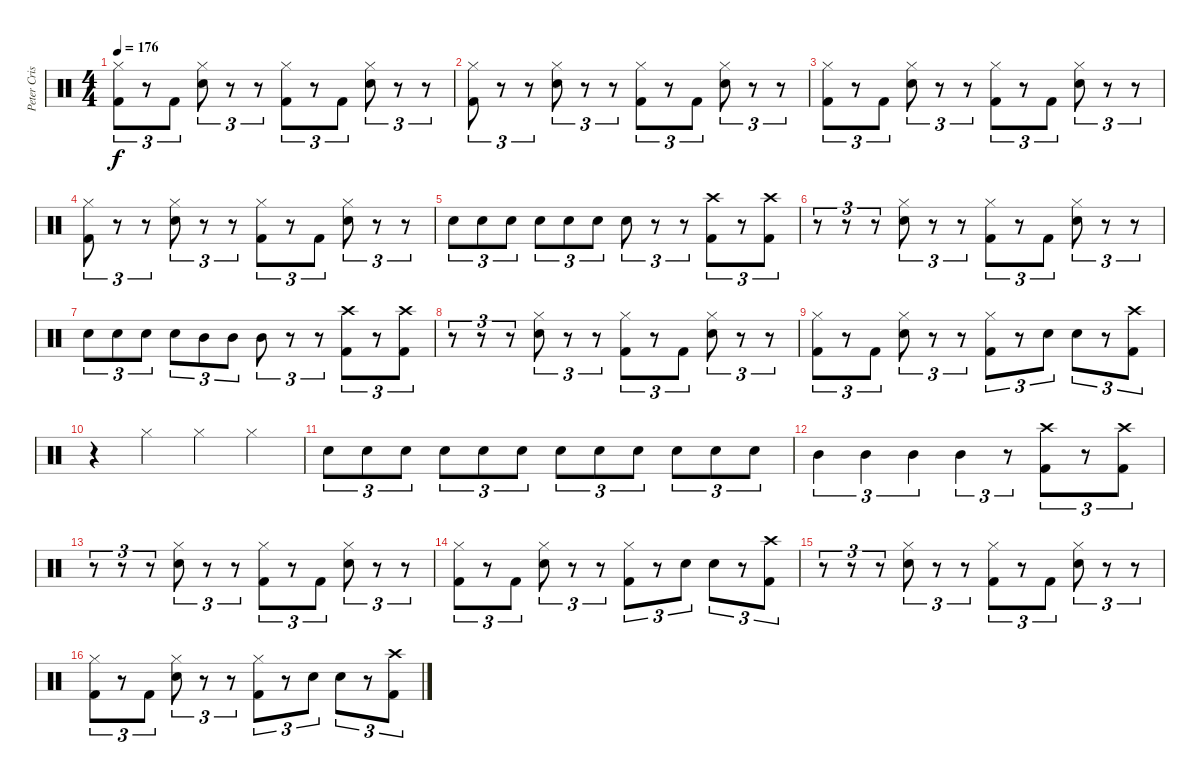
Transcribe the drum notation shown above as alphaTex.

\track ("Peter Criss" "Peter Cris") {instrument percussion}
\staff {score}
\articulation defaults
\ts (4 4)
\tempo 176
\clef neutral
\ks c
("Hi-Hat (closed)" "Kick (hit) 2").8{tu (3 2) dy f} r.8{tu (3 2)} "Kick (hit) 2".8{tu (3 2)} ("Hi-Hat (closed)" "Electric Snare (hit)").8{tu (3 2)} r.8{tu (3 2)} r.8{tu (3 2)} ("Hi-Hat (closed)" "Kick (hit) 2").8{tu (3 2)} r.8{tu (3 2)} "Kick (hit) 2".8{tu (3 2)} ("Hi-Hat (closed)" "Electric Snare (hit)").8{tu (3 2)} r.8{tu (3 2)} r.8{tu (3 2)} |
("Hi-Hat (closed)" "Kick (hit) 2").8{tu (3 2)} r.8{tu (3 2)} r.8{tu (3 2)} ("Hi-Hat (closed)" "Electric Snare (hit)").8{tu (3 2)} r.8{tu (3 2)} r.8{tu (3 2)} ("Hi-Hat (closed)" "Kick (hit) 2").8{tu (3 2)} r.8{tu (3 2)} "Kick (hit) 2".8{tu (3 2)} ("Hi-Hat (closed)" "Electric Snare (hit)").8{tu (3 2)} r.8{tu (3 2)} r.8{tu (3 2)} |
("Hi-Hat (closed)" "Kick (hit) 2").8{tu (3 2)} r.8{tu (3 2)} "Kick (hit) 2".8{tu (3 2)} ("Hi-Hat (closed)" "Electric Snare (hit)").8{tu (3 2)} r.8{tu (3 2)} r.8{tu (3 2)} ("Hi-Hat (closed)" "Kick (hit) 2").8{tu (3 2)} r.8{tu (3 2)} "Kick (hit) 2".8{tu (3 2)} ("Hi-Hat (closed)" "Electric Snare (hit)").8{tu (3 2)} r.8{tu (3 2)} r.8{tu (3 2)} |
("Hi-Hat (closed)" "Kick (hit) 2").8{tu (3 2)} r.8{tu (3 2)} r.8{tu (3 2)} ("Hi-Hat (closed)" "Electric Snare (hit)").8{tu (3 2)} r.8{tu (3 2)} r.8{tu (3 2)} ("Hi-Hat (closed)" "Kick (hit) 2").8{tu (3 2)} r.8{tu (3 2)} "Kick (hit) 2".8{tu (3 2)} ("Hi-Hat (closed)" "Electric Snare (hit)").8{tu (3 2)} r.8{tu (3 2)} r.8{tu (3 2)} |
"Electric Snare (hit)".8{tu (3 2)} "Electric Snare (hit)".8{tu (3 2)} "Electric Snare (hit)".8{tu (3 2)} "Electric Snare (hit)".8{tu (3 2)} "Electric Snare (hit)".8{tu (3 2)} "Electric Snare (hit)".8{tu (3 2)} "Electric Snare (hit)".8{tu (3 2)} r.8{tu (3 2)} r.8{tu (3 2)} ("Crash high (hit)" "Kick (hit) 2").8{tu (3 2)} r.8{tu (3 2)} ("Crash high (hit)" "Kick (hit) 2").8{tu (3 2)} |
r.8{tu (3 2)} r.8{tu (3 2)} r.8{tu (3 2)} ("Hi-Hat (closed)" "Electric Snare (hit)").8{tu (3 2)} r.8{tu (3 2)} r.8{tu (3 2)} ("Hi-Hat (closed)" "Kick (hit) 2").8{tu (3 2)} r.8{tu (3 2)} "Kick (hit) 2".8{tu (3 2)} ("Hi-Hat (closed)" "Electric Snare (hit)").8{tu (3 2)} r.8{tu (3 2)} r.8{tu (3 2)} |
"Electric Snare (hit)".8{tu (3 2)} "Electric Snare (hit)".8{tu (3 2)} "Electric Snare (hit)".8{tu (3 2)} "Electric Snare (hit)".8{tu (3 2)} "Mid Tom (hit)".8{tu (3 2)} "Mid Tom (hit)".8{tu (3 2)} "Mid Tom (hit)".8{tu (3 2)} r.8{tu (3 2)} r.8{tu (3 2)} ("Crash high (hit)" "Kick (hit) 2").8{tu (3 2)} r.8{tu (3 2)} ("Crash high (hit)" "Kick (hit) 2").8{tu (3 2)} |
r.8{tu (3 2)} r.8{tu (3 2)} r.8{tu (3 2)} ("Hi-Hat (closed)" "Electric Snare (hit)").8{tu (3 2)} r.8{tu (3 2)} r.8{tu (3 2)} ("Hi-Hat (closed)" "Kick (hit) 2").8{tu (3 2)} r.8{tu (3 2)} "Kick (hit) 2".8{tu (3 2)} ("Hi-Hat (closed)" "Electric Snare (hit)").8{tu (3 2)} r.8{tu (3 2)} r.8{tu (3 2)} |
("Hi-Hat (closed)" "Kick (hit) 2").8{tu (3 2)} r.8{tu (3 2)} "Kick (hit) 2".8{tu (3 2)} ("Hi-Hat (closed)" "Electric Snare (hit)").8{tu (3 2)} r.8{tu (3 2)} r.8{tu (3 2)} ("Hi-Hat (closed)" "Kick (hit) 2").8{tu (3 2)} r.8{tu (3 2)} "Electric Snare (hit)".8{tu (3 2)} "Electric Snare (hit)".8{tu (3 2)} r.8{tu (3 2)} ("Crash high (hit)" "Kick (hit) 2").8{tu (3 2)} |
r.4 "Hi-Hat (closed)".4 "Hi-Hat (closed)".4 "Hi-Hat (closed)".4 |
"Electric Snare (hit)".8{tu (3 2)} "Electric Snare (hit)".8{tu (3 2)} "Electric Snare (hit)".8{tu (3 2)} "Electric Snare (hit)".8{tu (3 2)} "Electric Snare (hit)".8{tu (3 2)} "Electric Snare (hit)".8{tu (3 2)} "Electric Snare (hit)".8{tu (3 2)} "Electric Snare (hit)".8{tu (3 2)} "Electric Snare (hit)".8{tu (3 2)} "Electric Snare (hit)".8{tu (3 2)} "Electric Snare (hit)".8{tu (3 2)} "Electric Snare (hit)".8{tu (3 2)} |
"Mid Tom (hit)".4{tu (3 2)} "Mid Tom (hit)".4{tu (3 2)} "Mid Tom (hit)".4{tu (3 2)} "Mid Tom (hit)".4{tu (3 2)} r.8{tu (3 2)} ("Crash high (hit)" "Kick (hit) 2").8{tu (3 2)} r.8{tu (3 2)} ("Crash high (hit)" "Kick (hit) 2").8{tu (3 2)} |
r.8{tu (3 2)} r.8{tu (3 2)} r.8{tu (3 2)} ("Hi-Hat (closed)" "Electric Snare (hit)").8{tu (3 2)} r.8{tu (3 2)} r.8{tu (3 2)} ("Hi-Hat (closed)" "Kick (hit) 2").8{tu (3 2)} r.8{tu (3 2)} "Kick (hit) 2".8{tu (3 2)} ("Hi-Hat (closed)" "Electric Snare (hit)").8{tu (3 2)} r.8{tu (3 2)} r.8{tu (3 2)} |
("Hi-Hat (closed)" "Kick (hit) 2").8{tu (3 2)} r.8{tu (3 2)} "Kick (hit) 2".8{tu (3 2)} ("Hi-Hat (closed)" "Electric Snare (hit)").8{tu (3 2)} r.8{tu (3 2)} r.8{tu (3 2)} ("Hi-Hat (closed)" "Kick (hit) 2").8{tu (3 2)} r.8{tu (3 2)} "Electric Snare (hit)".8{tu (3 2)} "Electric Snare (hit)".8{tu (3 2)} r.8{tu (3 2)} ("Crash high (hit)" "Kick (hit) 2").8{tu (3 2)} |
r.8{tu (3 2)} r.8{tu (3 2)} r.8{tu (3 2)} ("Hi-Hat (closed)" "Electric Snare (hit)").8{tu (3 2)} r.8{tu (3 2)} r.8{tu (3 2)} ("Hi-Hat (closed)" "Kick (hit) 2").8{tu (3 2)} r.8{tu (3 2)} "Kick (hit) 2".8{tu (3 2)} ("Hi-Hat (closed)" "Electric Snare (hit)").8{tu (3 2)} r.8{tu (3 2)} r.8{tu (3 2)} |
("Hi-Hat (closed)" "Kick (hit) 2").8{tu (3 2)} r.8{tu (3 2)} "Kick (hit) 2".8{tu (3 2)} ("Hi-Hat (closed)" "Electric Snare (hit)").8{tu (3 2)} r.8{tu (3 2)} r.8{tu (3 2)} ("Hi-Hat (closed)" "Kick (hit) 2").8{tu (3 2)} r.8{tu (3 2)} "Electric Snare (hit)".8{tu (3 2)} "Electric Snare (hit)".8{tu (3 2)} r.8{tu (3 2)} ("Crash high (hit)" "Kick (hit) 2").8{tu (3 2)}
